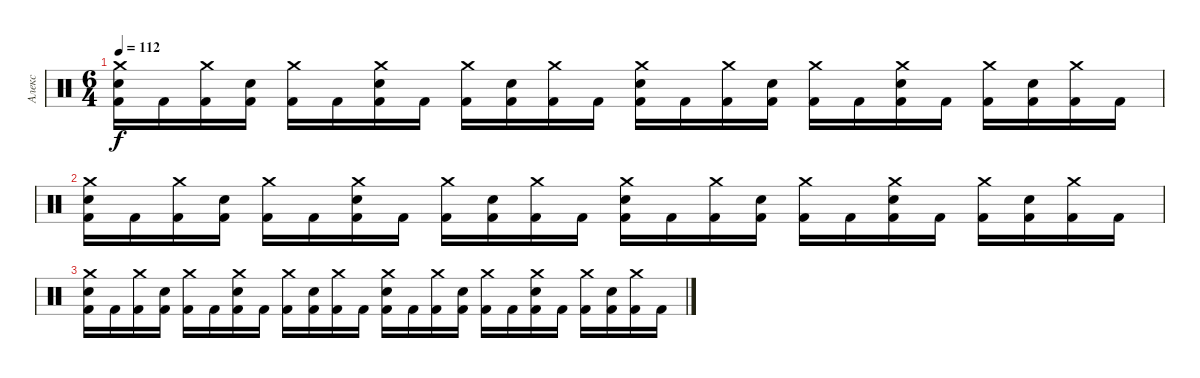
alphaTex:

\track ("Алекс" "Алекс") {instrument percussion}
\staff {score}
\articulation defaults
\ts (6 4)
\tempo 112
\clef neutral
\ks c
("Crash medium (hit)" "Electric Snare (hit)" "Kick (hit) 2").16{dy f volume 0} "Kick (hit) 2".16 ("Crash medium (hit)" "Kick (hit) 2").16 ("Electric Snare (hit)" "Kick (hit) 2").16 ("Crash medium (hit)" "Kick (hit) 2").16 "Kick (hit) 2".16 ("Crash medium (hit)" "Electric Snare (hit)" "Kick (hit) 2").16 "Kick (hit) 2".16 ("Crash medium (hit)" "Kick (hit) 2").16 ("Electric Snare (hit)" "Kick (hit) 2").16 ("Crash medium (hit)" "Kick (hit) 2").16 "Kick (hit) 2".16 ("Crash medium (hit)" "Electric Snare (hit)" "Kick (hit) 2").16 "Kick (hit) 2".16 ("Crash medium (hit)" "Kick (hit) 2").16 ("Electric Snare (hit)" "Kick (hit) 2").16 ("Crash medium (hit)" "Kick (hit) 2").16 "Kick (hit) 2".16 ("Crash medium (hit)" "Electric Snare (hit)" "Kick (hit) 2").16 "Kick (hit) 2".16 ("Crash medium (hit)" "Kick (hit) 2").16 ("Electric Snare (hit)" "Kick (hit) 2").16 ("Crash medium (hit)" "Kick (hit) 2").16 "Kick (hit) 2".16 |
("Crash medium (hit)" "Electric Snare (hit)" "Kick (hit) 2").16 "Kick (hit) 2".16 ("Crash medium (hit)" "Kick (hit) 2").16 ("Electric Snare (hit)" "Kick (hit) 2").16 ("Crash medium (hit)" "Kick (hit) 2").16 "Kick (hit) 2".16 ("Crash medium (hit)" "Electric Snare (hit)" "Kick (hit) 2").16 "Kick (hit) 2".16 ("Crash medium (hit)" "Kick (hit) 2").16 ("Electric Snare (hit)" "Kick (hit) 2").16 ("Crash medium (hit)" "Kick (hit) 2").16 "Kick (hit) 2".16 ("Crash medium (hit)" "Electric Snare (hit)" "Kick (hit) 2").16 "Kick (hit) 2".16 ("Crash medium (hit)" "Kick (hit) 2").16 ("Electric Snare (hit)" "Kick (hit) 2").16 ("Crash medium (hit)" "Kick (hit) 2").16 "Kick (hit) 2".16 ("Crash medium (hit)" "Electric Snare (hit)" "Kick (hit) 2").16 "Kick (hit) 2".16 ("Crash medium (hit)" "Kick (hit) 2").16 ("Electric Snare (hit)" "Kick (hit) 2").16 ("Crash medium (hit)" "Kick (hit) 2").16 "Kick (hit) 2".16 |
("Crash medium (hit)" "Electric Snare (hit)" "Kick (hit) 2").16 "Kick (hit) 2".16 ("Crash medium (hit)" "Kick (hit) 2").16 ("Electric Snare (hit)" "Kick (hit) 2").16 ("Crash medium (hit)" "Kick (hit) 2").16 "Kick (hit) 2".16 ("Crash medium (hit)" "Electric Snare (hit)" "Kick (hit) 2").16 "Kick (hit) 2".16 ("Crash medium (hit)" "Kick (hit) 2").16 ("Electric Snare (hit)" "Kick (hit) 2").16 ("Crash medium (hit)" "Kick (hit) 2").16 "Kick (hit) 2".16 ("Crash medium (hit)" "Electric Snare (hit)" "Kick (hit) 2").16 "Kick (hit) 2".16 ("Crash medium (hit)" "Kick (hit) 2").16 ("Electric Snare (hit)" "Kick (hit) 2").16 ("Crash medium (hit)" "Kick (hit) 2").16 "Kick (hit) 2".16 ("Crash medium (hit)" "Electric Snare (hit)" "Kick (hit) 2").16 "Kick (hit) 2".16 ("Crash medium (hit)" "Kick (hit) 2").16 ("Electric Snare (hit)" "Kick (hit) 2").16 ("Crash medium (hit)" "Kick (hit) 2").16 "Kick (hit) 2".16
